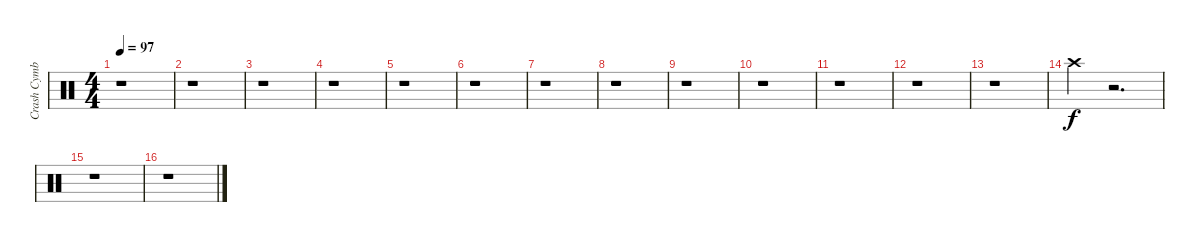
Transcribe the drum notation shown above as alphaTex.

\track ("Crash Cymbal" "Crash Cymb") {instrument percussion}
\staff {score}
\articulation defaults
\ts (4 4)
\tempo 97
\clef neutral
\ks c
r.1{dy f} |
r.1 |
r.1 |
r.1 |
r.1 |
r.1 |
r.1 |
r.1 |
r.1 |
r.1 |
r.1 |
r.1 |
r.1 |
"Crash high (hit)".4 r.2{d} |
r.1 |
r.1
